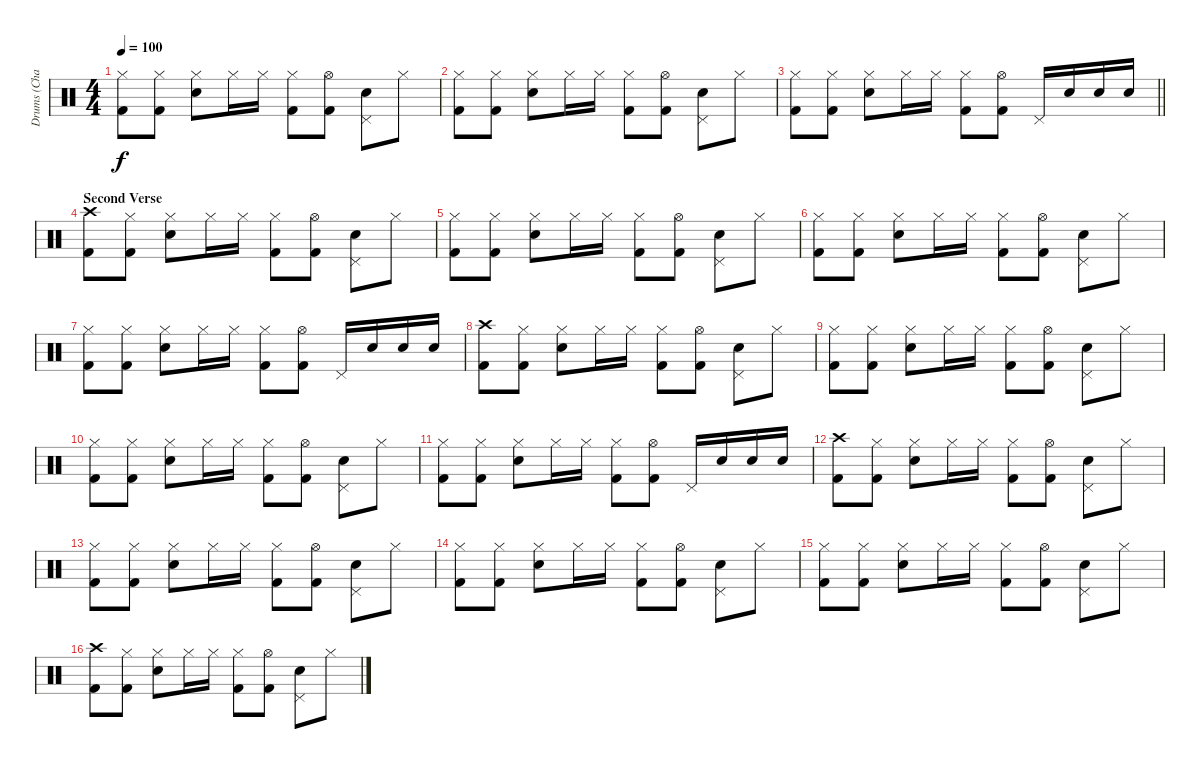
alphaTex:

\track ("Drums (Charlie)" "Drums (Cha") {instrument percussion}
\staff {score}
\articulation defaults
\ts (4 4)
\tempo 100
\clef neutral
\ks c
("Hi-Hat (closed)" "Kick (hit) 2").8{dy f} ("Hi-Hat (closed)" "Kick (hit) 2").8 ("Hi-Hat (closed)" "Electric Snare (hit)").8 "Hi-Hat (closed)".16 "Hi-Hat (closed)".16 ("Hi-Hat (closed)" "Kick (hit) 2").8 ("Hi-Hat (open)" "Kick (hit) 2").8 ("Pedal Hi-Hat (hit)" "Electric Snare (hit)").8 "Hi-Hat (closed)".8 |
("Hi-Hat (closed)" "Kick (hit) 2").8 ("Hi-Hat (closed)" "Kick (hit) 2").8 ("Hi-Hat (closed)" "Electric Snare (hit)").8 "Hi-Hat (closed)".16 "Hi-Hat (closed)".16 ("Hi-Hat (closed)" "Kick (hit) 2").8 ("Hi-Hat (open)" "Kick (hit) 2").8 ("Pedal Hi-Hat (hit)" "Electric Snare (hit)").8 "Hi-Hat (closed)".8 |
\barLineRight lightlight
("Hi-Hat (closed)" "Kick (hit) 2").8 ("Hi-Hat (closed)" "Kick (hit) 2").8 ("Hi-Hat (closed)" "Electric Snare (hit)").8 "Hi-Hat (closed)".16 "Hi-Hat (closed)".16 ("Hi-Hat (closed)" "Kick (hit) 2").8 ("Hi-Hat (open)" "Kick (hit) 2").8 "Pedal Hi-Hat (hit)".16 "Electric Snare (hit)".16 "Electric Snare (hit)".16 "Electric Snare (hit)".16 |
\section ("" "Second Verse")
("Crash high (hit)" "Kick (hit) 2").8 ("Hi-Hat (closed)" "Kick (hit) 2").8 ("Hi-Hat (closed)" "Electric Snare (hit)").8 "Hi-Hat (closed)".16 "Hi-Hat (closed)".16 ("Hi-Hat (closed)" "Kick (hit) 2").8 ("Hi-Hat (open)" "Kick (hit) 2").8 ("Pedal Hi-Hat (hit)" "Electric Snare (hit)").8 "Hi-Hat (closed)".8 |
("Hi-Hat (closed)" "Kick (hit) 2").8 ("Hi-Hat (closed)" "Kick (hit) 2").8 ("Hi-Hat (closed)" "Electric Snare (hit)").8 "Hi-Hat (closed)".16 "Hi-Hat (closed)".16 ("Hi-Hat (closed)" "Kick (hit) 2").8 ("Hi-Hat (open)" "Kick (hit) 2").8 ("Pedal Hi-Hat (hit)" "Electric Snare (hit)").8 "Hi-Hat (closed)".8 |
("Hi-Hat (closed)" "Kick (hit) 2").8 ("Hi-Hat (closed)" "Kick (hit) 2").8 ("Hi-Hat (closed)" "Electric Snare (hit)").8 "Hi-Hat (closed)".16 "Hi-Hat (closed)".16 ("Hi-Hat (closed)" "Kick (hit) 2").8 ("Hi-Hat (open)" "Kick (hit) 2").8 ("Pedal Hi-Hat (hit)" "Electric Snare (hit)").8 "Hi-Hat (closed)".8 |
("Hi-Hat (closed)" "Kick (hit) 2").8 ("Hi-Hat (closed)" "Kick (hit) 2").8 ("Hi-Hat (closed)" "Electric Snare (hit)").8 "Hi-Hat (closed)".16 "Hi-Hat (closed)".16 ("Hi-Hat (closed)" "Kick (hit) 2").8 ("Hi-Hat (open)" "Kick (hit) 2").8 "Pedal Hi-Hat (hit)".16 "Electric Snare (hit)".16 "Electric Snare (hit)".16 "Electric Snare (hit)".16 |
("Crash high (hit)" "Kick (hit) 2").8 ("Hi-Hat (closed)" "Kick (hit) 2").8 ("Hi-Hat (closed)" "Electric Snare (hit)").8 "Hi-Hat (closed)".16 "Hi-Hat (closed)".16 ("Hi-Hat (closed)" "Kick (hit) 2").8 ("Hi-Hat (open)" "Kick (hit) 2").8 ("Pedal Hi-Hat (hit)" "Electric Snare (hit)").8 "Hi-Hat (closed)".8 |
("Hi-Hat (closed)" "Kick (hit) 2").8 ("Hi-Hat (closed)" "Kick (hit) 2").8 ("Hi-Hat (closed)" "Electric Snare (hit)").8 "Hi-Hat (closed)".16 "Hi-Hat (closed)".16 ("Hi-Hat (closed)" "Kick (hit) 2").8 ("Hi-Hat (open)" "Kick (hit) 2").8 ("Pedal Hi-Hat (hit)" "Electric Snare (hit)").8 "Hi-Hat (closed)".8 |
("Hi-Hat (closed)" "Kick (hit) 2").8 ("Hi-Hat (closed)" "Kick (hit) 2").8 ("Hi-Hat (closed)" "Electric Snare (hit)").8 "Hi-Hat (closed)".16 "Hi-Hat (closed)".16 ("Hi-Hat (closed)" "Kick (hit) 2").8 ("Hi-Hat (open)" "Kick (hit) 2").8 ("Pedal Hi-Hat (hit)" "Electric Snare (hit)").8 "Hi-Hat (closed)".8 |
("Hi-Hat (closed)" "Kick (hit) 2").8 ("Hi-Hat (closed)" "Kick (hit) 2").8 ("Hi-Hat (closed)" "Electric Snare (hit)").8 "Hi-Hat (closed)".16 "Hi-Hat (closed)".16 ("Hi-Hat (closed)" "Kick (hit) 2").8 ("Hi-Hat (open)" "Kick (hit) 2").8 "Pedal Hi-Hat (hit)".16 "Electric Snare (hit)".16 "Electric Snare (hit)".16 "Electric Snare (hit)".16 |
("Crash high (hit)" "Kick (hit) 2").8 ("Hi-Hat (closed)" "Kick (hit) 2").8 ("Hi-Hat (closed)" "Electric Snare (hit)").8 "Hi-Hat (closed)".16 "Hi-Hat (closed)".16 ("Hi-Hat (closed)" "Kick (hit) 2").8 ("Hi-Hat (open)" "Kick (hit) 2").8 ("Pedal Hi-Hat (hit)" "Electric Snare (hit)").8 "Hi-Hat (closed)".8 |
("Hi-Hat (closed)" "Kick (hit) 2").8 ("Hi-Hat (closed)" "Kick (hit) 2").8 ("Hi-Hat (closed)" "Electric Snare (hit)").8 "Hi-Hat (closed)".16 "Hi-Hat (closed)".16 ("Hi-Hat (closed)" "Kick (hit) 2").8 ("Hi-Hat (open)" "Kick (hit) 2").8 ("Pedal Hi-Hat (hit)" "Electric Snare (hit)").8 "Hi-Hat (closed)".8 |
("Hi-Hat (closed)" "Kick (hit) 2").8 ("Hi-Hat (closed)" "Kick (hit) 2").8 ("Hi-Hat (closed)" "Electric Snare (hit)").8 "Hi-Hat (closed)".16 "Hi-Hat (closed)".16 ("Hi-Hat (closed)" "Kick (hit) 2").8 ("Hi-Hat (open)" "Kick (hit) 2").8 ("Pedal Hi-Hat (hit)" "Electric Snare (hit)").8 "Hi-Hat (closed)".8 |
("Hi-Hat (closed)" "Kick (hit) 2").8 ("Hi-Hat (closed)" "Kick (hit) 2").8 ("Hi-Hat (closed)" "Electric Snare (hit)").8 "Hi-Hat (closed)".16 "Hi-Hat (closed)".16 ("Hi-Hat (closed)" "Kick (hit) 2").8 ("Hi-Hat (open)" "Kick (hit) 2").8 ("Pedal Hi-Hat (hit)" "Electric Snare (hit)").8 "Hi-Hat (closed)".8 |
("Crash high (hit)" "Kick (hit) 2").8 ("Hi-Hat (closed)" "Kick (hit) 2").8 ("Hi-Hat (closed)" "Electric Snare (hit)").8 "Hi-Hat (closed)".16 "Hi-Hat (closed)".16 ("Hi-Hat (closed)" "Kick (hit) 2").8 ("Hi-Hat (open)" "Kick (hit) 2").8 ("Pedal Hi-Hat (hit)" "Electric Snare (hit)").8 "Hi-Hat (closed)".8
